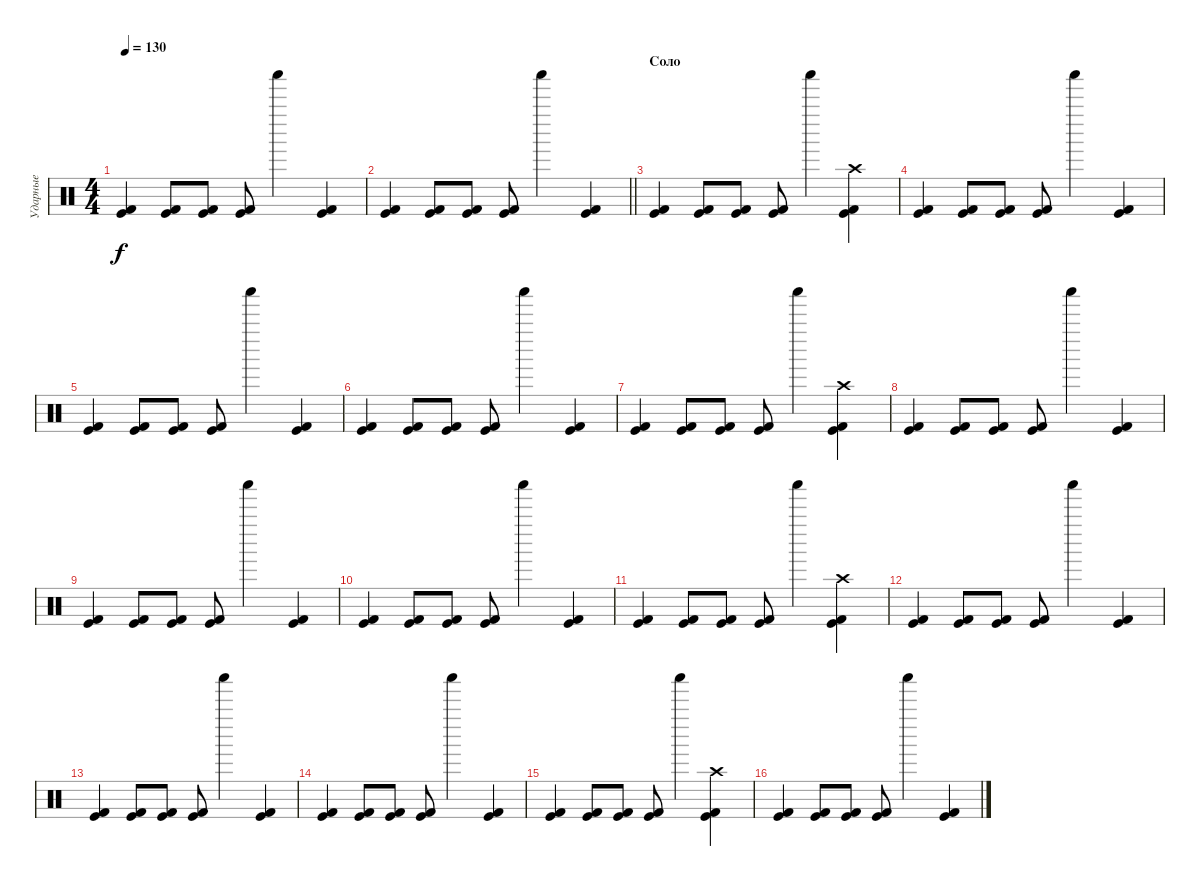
\track ("Ударные" "Ударные") {instrument percussion}
\staff {score}
\articulation defaults
\ts (4 4)
\tempo 130
\clef neutral
\ks c
("Kick (hit)" "Kick (hit) 2").4{dy f} ("Kick (hit)" "Kick (hit) 2").8 ("Kick (hit)" "Kick (hit) 2").8 ("Kick (hit)" "Kick (hit) 2").8 "Shaker (hit)".4 ("Kick (hit)" "Kick (hit) 2").4 |
\barLineRight lightlight
("Kick (hit)" "Kick (hit) 2").4 ("Kick (hit)" "Kick (hit) 2").8 ("Kick (hit)" "Kick (hit) 2").8 ("Kick (hit)" "Kick (hit) 2").8 "Shaker (hit)".4 ("Kick (hit)" "Kick (hit) 2").4 |
\section ("" "Соло")
("Kick (hit)" "Kick (hit) 2").4 ("Kick (hit)" "Kick (hit) 2").8 ("Kick (hit)" "Kick (hit) 2").8 ("Kick (hit)" "Kick (hit) 2").8 "Shaker (hit)".4 ("Kick (hit)" "Kick (hit) 2" "Crash high (hit)").4 |
("Kick (hit)" "Kick (hit) 2").4 ("Kick (hit)" "Kick (hit) 2").8 ("Kick (hit)" "Kick (hit) 2").8 ("Kick (hit)" "Kick (hit) 2").8 "Shaker (hit)".4 ("Kick (hit)" "Kick (hit) 2").4 |
("Kick (hit)" "Kick (hit) 2").4 ("Kick (hit)" "Kick (hit) 2").8 ("Kick (hit)" "Kick (hit) 2").8 ("Kick (hit)" "Kick (hit) 2").8 "Shaker (hit)".4 ("Kick (hit)" "Kick (hit) 2").4 |
("Kick (hit)" "Kick (hit) 2").4 ("Kick (hit)" "Kick (hit) 2").8 ("Kick (hit)" "Kick (hit) 2").8 ("Kick (hit)" "Kick (hit) 2").8 "Shaker (hit)".4 ("Kick (hit)" "Kick (hit) 2").4 |
("Kick (hit)" "Kick (hit) 2").4 ("Kick (hit)" "Kick (hit) 2").8 ("Kick (hit)" "Kick (hit) 2").8 ("Kick (hit)" "Kick (hit) 2").8 "Shaker (hit)".4 ("Kick (hit)" "Kick (hit) 2" "Crash high (hit)").4 |
("Kick (hit)" "Kick (hit) 2").4 ("Kick (hit)" "Kick (hit) 2").8 ("Kick (hit)" "Kick (hit) 2").8 ("Kick (hit)" "Kick (hit) 2").8 "Shaker (hit)".4 ("Kick (hit)" "Kick (hit) 2").4 |
("Kick (hit)" "Kick (hit) 2").4 ("Kick (hit)" "Kick (hit) 2").8 ("Kick (hit)" "Kick (hit) 2").8 ("Kick (hit)" "Kick (hit) 2").8 "Shaker (hit)".4 ("Kick (hit)" "Kick (hit) 2").4 |
("Kick (hit)" "Kick (hit) 2").4 ("Kick (hit)" "Kick (hit) 2").8 ("Kick (hit)" "Kick (hit) 2").8 ("Kick (hit)" "Kick (hit) 2").8 "Shaker (hit)".4 ("Kick (hit)" "Kick (hit) 2").4 |
("Kick (hit)" "Kick (hit) 2").4 ("Kick (hit)" "Kick (hit) 2").8 ("Kick (hit)" "Kick (hit) 2").8 ("Kick (hit)" "Kick (hit) 2").8 "Shaker (hit)".4 ("Kick (hit)" "Kick (hit) 2" "Crash high (hit)").4 |
("Kick (hit)" "Kick (hit) 2").4 ("Kick (hit)" "Kick (hit) 2").8 ("Kick (hit)" "Kick (hit) 2").8 ("Kick (hit)" "Kick (hit) 2").8 "Shaker (hit)".4 ("Kick (hit)" "Kick (hit) 2").4 |
("Kick (hit)" "Kick (hit) 2").4 ("Kick (hit)" "Kick (hit) 2").8 ("Kick (hit)" "Kick (hit) 2").8 ("Kick (hit)" "Kick (hit) 2").8 "Shaker (hit)".4 ("Kick (hit)" "Kick (hit) 2").4 |
("Kick (hit)" "Kick (hit) 2").4 ("Kick (hit)" "Kick (hit) 2").8 ("Kick (hit)" "Kick (hit) 2").8 ("Kick (hit)" "Kick (hit) 2").8 "Shaker (hit)".4 ("Kick (hit)" "Kick (hit) 2").4 |
("Kick (hit)" "Kick (hit) 2").4 ("Kick (hit)" "Kick (hit) 2").8 ("Kick (hit)" "Kick (hit) 2").8 ("Kick (hit)" "Kick (hit) 2").8 "Shaker (hit)".4 ("Kick (hit)" "Kick (hit) 2" "Crash high (hit)").4 |
("Kick (hit)" "Kick (hit) 2").4 ("Kick (hit)" "Kick (hit) 2").8 ("Kick (hit)" "Kick (hit) 2").8 ("Kick (hit)" "Kick (hit) 2").8 "Shaker (hit)".4 ("Kick (hit)" "Kick (hit) 2").4
